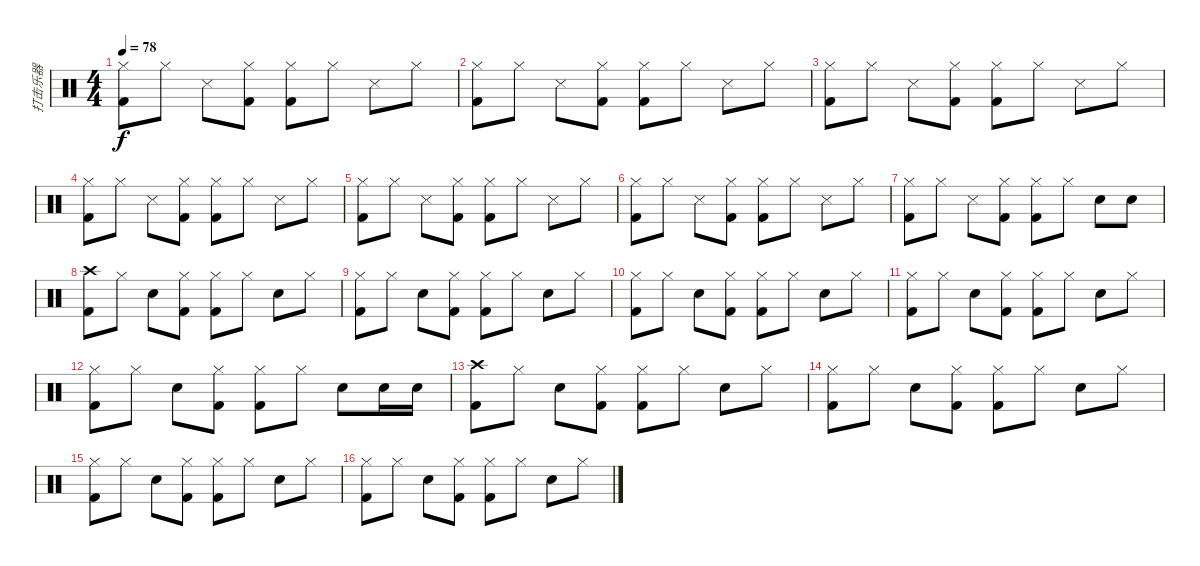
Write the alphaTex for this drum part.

\track ("打击乐器" "打击乐器") {instrument percussion}
\staff {score}
\articulation defaults
\ts (4 4)
\tempo 78
\clef neutral
\ks c
("Hi-Hat (closed)" "Kick (hit) 2").8{dy f} "Hi-Hat (closed)".8 "Snare (side stick) 3".8 ("Hi-Hat (closed)" "Kick (hit) 2").8 ("Hi-Hat (closed)" "Kick (hit) 2").8 "Hi-Hat (closed)".8 "Snare (side stick) 3".8 "Hi-Hat (closed)".8 |
("Hi-Hat (closed)" "Kick (hit) 2").8 "Hi-Hat (closed)".8 "Snare (side stick) 3".8 ("Hi-Hat (closed)" "Kick (hit) 2").8 ("Hi-Hat (closed)" "Kick (hit) 2").8 "Hi-Hat (closed)".8 "Snare (side stick) 3".8 "Hi-Hat (closed)".8 |
("Hi-Hat (closed)" "Kick (hit) 2").8 "Hi-Hat (closed)".8 "Snare (side stick) 3".8 ("Hi-Hat (closed)" "Kick (hit) 2").8 ("Hi-Hat (closed)" "Kick (hit) 2").8 "Hi-Hat (closed)".8 "Snare (side stick) 3".8 "Hi-Hat (closed)".8 |
("Hi-Hat (closed)" "Kick (hit) 2").8 "Hi-Hat (closed)".8 "Snare (side stick) 3".8 ("Hi-Hat (closed)" "Kick (hit) 2").8 ("Hi-Hat (closed)" "Kick (hit) 2").8 "Hi-Hat (closed)".8 "Snare (side stick) 3".8 "Hi-Hat (closed)".8 |
("Hi-Hat (closed)" "Kick (hit) 2").8 "Hi-Hat (closed)".8 "Snare (side stick) 3".8 ("Hi-Hat (closed)" "Kick (hit) 2").8 ("Hi-Hat (closed)" "Kick (hit) 2").8 "Hi-Hat (closed)".8 "Snare (side stick) 3".8 "Hi-Hat (closed)".8 |
("Hi-Hat (closed)" "Kick (hit) 2").8 "Hi-Hat (closed)".8 "Snare (side stick) 3".8 ("Hi-Hat (closed)" "Kick (hit) 2").8 ("Hi-Hat (closed)" "Kick (hit) 2").8 "Hi-Hat (closed)".8 "Snare (side stick) 3".8 "Hi-Hat (closed)".8 |
("Hi-Hat (closed)" "Kick (hit) 2").8 "Hi-Hat (closed)".8 "Snare (side stick) 3".8 ("Hi-Hat (closed)" "Kick (hit) 2").8 ("Hi-Hat (closed)" "Kick (hit) 2").8 "Hi-Hat (closed)".8 "Snare (hit) 2".8 "Snare (hit) 2".8 |
("Crash high (hit)" "Kick (hit) 2").8 "Hi-Hat (closed)".8 "Snare (hit) 2".8 ("Hi-Hat (closed)" "Kick (hit) 2").8 ("Hi-Hat (closed)" "Kick (hit) 2").8 "Hi-Hat (closed)".8 "Snare (hit) 2".8 "Hi-Hat (closed)".8 |
("Hi-Hat (closed)" "Kick (hit) 2").8 "Hi-Hat (closed)".8 "Snare (hit) 2".8 ("Hi-Hat (closed)" "Kick (hit) 2").8 ("Hi-Hat (closed)" "Kick (hit) 2").8 "Hi-Hat (closed)".8 "Snare (hit) 2".8 "Hi-Hat (closed)".8 |
("Hi-Hat (closed)" "Kick (hit) 2").8 "Hi-Hat (closed)".8 "Snare (hit) 2".8 ("Hi-Hat (closed)" "Kick (hit) 2").8 ("Hi-Hat (closed)" "Kick (hit) 2").8 "Hi-Hat (closed)".8 "Snare (hit) 2".8 "Hi-Hat (closed)".8 |
("Hi-Hat (closed)" "Kick (hit) 2").8 "Hi-Hat (closed)".8 "Snare (hit) 2".8 ("Hi-Hat (closed)" "Kick (hit) 2").8 ("Hi-Hat (closed)" "Kick (hit) 2").8 "Hi-Hat (closed)".8 "Snare (hit) 2".8 "Hi-Hat (closed)".8 |
("Hi-Hat (closed)" "Kick (hit) 2").8 "Hi-Hat (closed)".8 "Snare (hit) 2".8 ("Hi-Hat (closed)" "Kick (hit) 2").8 ("Hi-Hat (closed)" "Kick (hit) 2").8 "Hi-Hat (closed)".8 "Snare (hit) 2".8 "Snare (hit) 2".16 "Snare (hit) 2".16 |
("Crash high (hit)" "Kick (hit) 2").8 "Hi-Hat (closed)".8 "Snare (hit) 2".8 ("Hi-Hat (closed)" "Kick (hit) 2").8 ("Hi-Hat (closed)" "Kick (hit) 2").8 "Hi-Hat (closed)".8 "Snare (hit) 2".8 "Hi-Hat (closed)".8 |
("Hi-Hat (closed)" "Kick (hit) 2").8 "Hi-Hat (closed)".8 "Snare (hit) 2".8 ("Hi-Hat (closed)" "Kick (hit) 2").8 ("Hi-Hat (closed)" "Kick (hit) 2").8 "Hi-Hat (closed)".8 "Snare (hit) 2".8 "Hi-Hat (closed)".8 |
("Hi-Hat (closed)" "Kick (hit) 2").8 "Hi-Hat (closed)".8 "Snare (hit) 2".8 ("Hi-Hat (closed)" "Kick (hit) 2").8 ("Hi-Hat (closed)" "Kick (hit) 2").8 "Hi-Hat (closed)".8 "Snare (hit) 2".8 "Hi-Hat (closed)".8 |
("Hi-Hat (closed)" "Kick (hit) 2").8 "Hi-Hat (closed)".8 "Snare (hit) 2".8 ("Hi-Hat (closed)" "Kick (hit) 2").8 ("Hi-Hat (closed)" "Kick (hit) 2").8 "Hi-Hat (closed)".8 "Snare (hit) 2".8 "Hi-Hat (closed)".8
